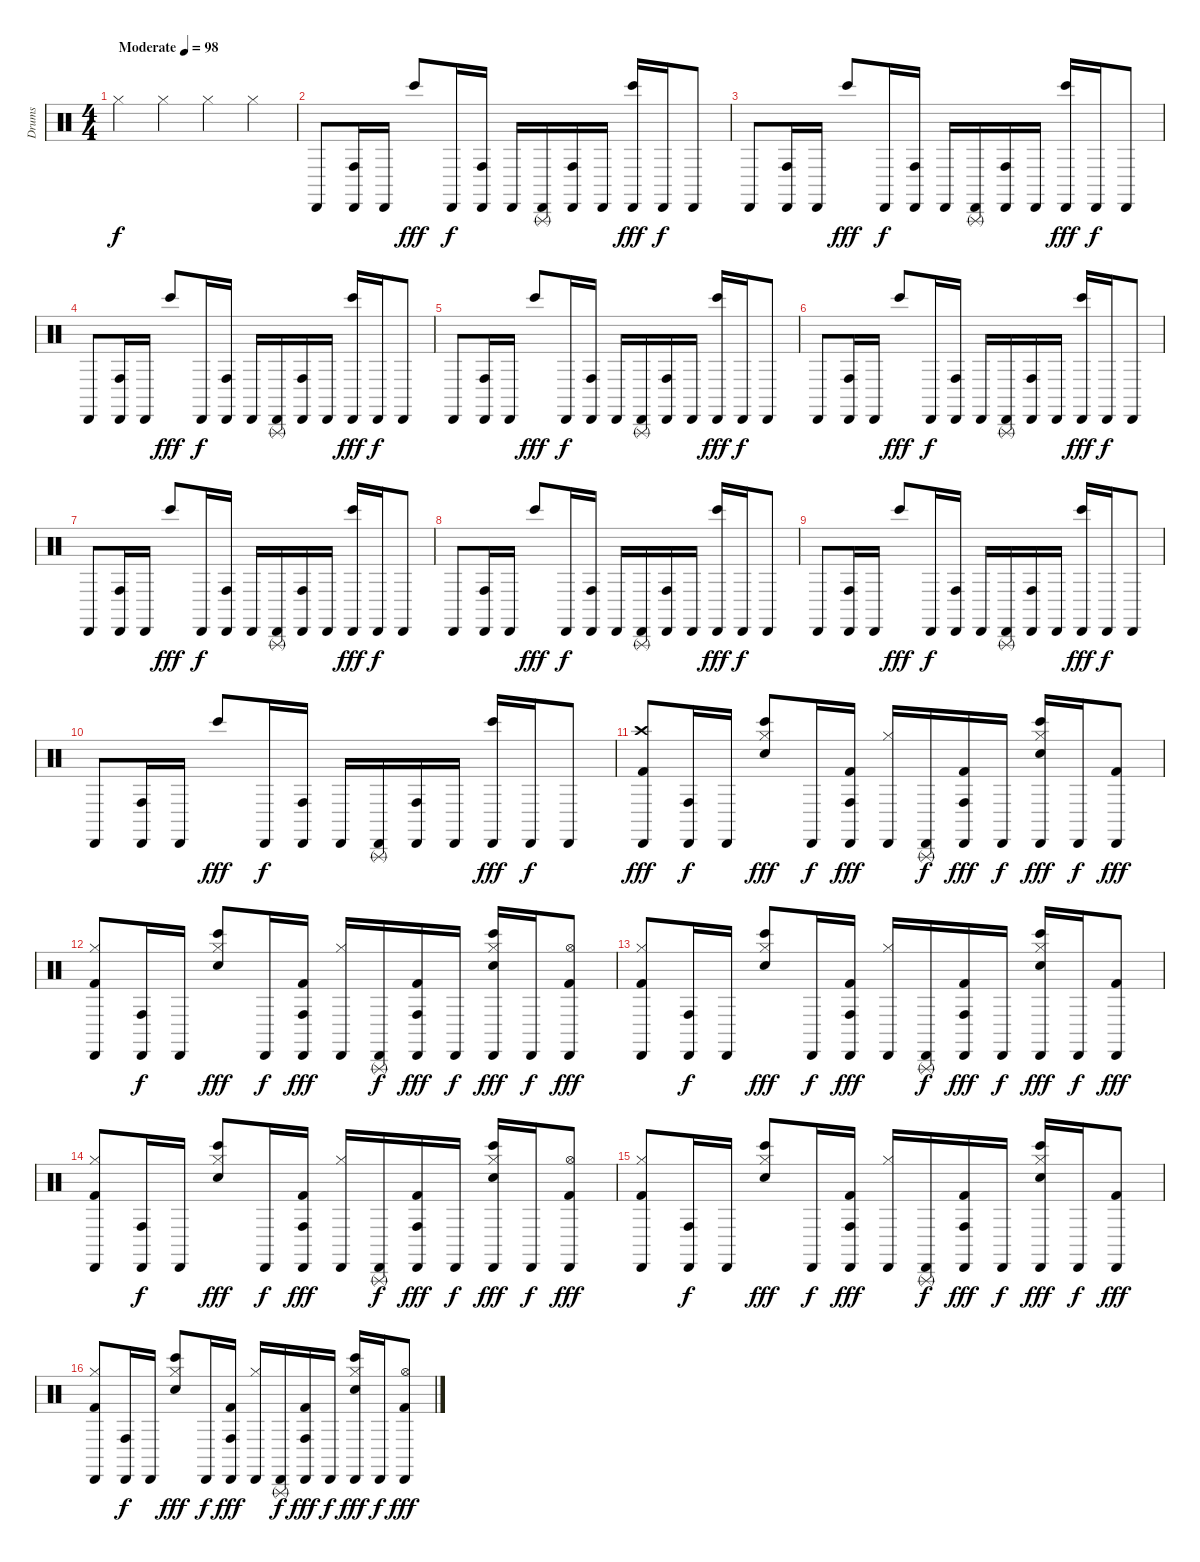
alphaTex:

\track ("Drums" "Drums") {instrument percussion}
\staff {score}
\articulation defaults
\ts (4 4)
\tempo (98 "Moderate")
\clef neutral
\ks c "Hi-Hat (closed)".4{dy f} "Hi-Hat (closed)".4 "Hi-Hat (closed)".4 "Hi-Hat (closed)".4
|
"Cabasa (hit)".8 ("Conga high (hit)" "Cabasa (hit)").16 "Cabasa (hit)".16 "Bongo High (hit)".8{dy fff} "Cabasa (hit)".16{dy f} ("Conga high (hit)" "Cabasa (hit)").16 "Cabasa (hit)".16 ("Triangle (rnute)" "Cabasa (hit)").16 ("Conga high (hit)" "Cabasa (hit)").16 "Cabasa (hit)".16 ("Bongo High (hit)" "Cabasa (hit)").16{dy fff} "Cabasa (hit)".16{dy f} "Cabasa (hit)".8 |
"Cabasa (hit)".8 ("Conga high (hit)" "Cabasa (hit)").16 "Cabasa (hit)".16 "Bongo High (hit)".8{dy fff} "Cabasa (hit)".16{dy f} ("Conga high (hit)" "Cabasa (hit)").16 "Cabasa (hit)".16 ("Triangle (rnute)" "Cabasa (hit)").16 ("Conga high (hit)" "Cabasa (hit)").16 "Cabasa (hit)".16 ("Bongo High (hit)" "Cabasa (hit)").16{dy fff} "Cabasa (hit)".16{dy f} "Cabasa (hit)".8 |
"Cabasa (hit)".8 ("Conga high (hit)" "Cabasa (hit)").16 "Cabasa (hit)".16 "Bongo High (hit)".8{dy fff} "Cabasa (hit)".16{dy f} ("Conga high (hit)" "Cabasa (hit)").16 "Cabasa (hit)".16 ("Triangle (rnute)" "Cabasa (hit)").16 ("Conga high (hit)" "Cabasa (hit)").16 "Cabasa (hit)".16 ("Bongo High (hit)" "Cabasa (hit)").16{dy fff} "Cabasa (hit)".16{dy f} "Cabasa (hit)".8 |
"Cabasa (hit)".8 ("Conga high (hit)" "Cabasa (hit)").16 "Cabasa (hit)".16 "Bongo High (hit)".8{dy fff} "Cabasa (hit)".16{dy f} ("Conga high (hit)" "Cabasa (hit)").16 "Cabasa (hit)".16 ("Triangle (rnute)" "Cabasa (hit)").16 ("Conga high (hit)" "Cabasa (hit)").16 "Cabasa (hit)".16 ("Bongo High (hit)" "Cabasa (hit)").16{dy fff} "Cabasa (hit)".16{dy f} "Cabasa (hit)".8 |
"Cabasa (hit)".8 ("Conga high (hit)" "Cabasa (hit)").16 "Cabasa (hit)".16 "Bongo High (hit)".8{dy fff} "Cabasa (hit)".16{dy f} ("Conga high (hit)" "Cabasa (hit)").16 "Cabasa (hit)".16 ("Triangle (rnute)" "Cabasa (hit)").16 ("Conga high (hit)" "Cabasa (hit)").16 "Cabasa (hit)".16 ("Bongo High (hit)" "Cabasa (hit)").16{dy fff} "Cabasa (hit)".16{dy f} "Cabasa (hit)".8 |
"Cabasa (hit)".8 ("Conga high (hit)" "Cabasa (hit)").16 "Cabasa (hit)".16 "Bongo High (hit)".8{dy fff} "Cabasa (hit)".16{dy f} ("Conga high (hit)" "Cabasa (hit)").16 "Cabasa (hit)".16 ("Triangle (rnute)" "Cabasa (hit)").16 ("Conga high (hit)" "Cabasa (hit)").16 "Cabasa (hit)".16 ("Bongo High (hit)" "Cabasa (hit)").16{dy fff} "Cabasa (hit)".16{dy f} "Cabasa (hit)".8 |
"Cabasa (hit)".8 ("Conga high (hit)" "Cabasa (hit)").16 "Cabasa (hit)".16 "Bongo High (hit)".8{dy fff} "Cabasa (hit)".16{dy f} ("Conga high (hit)" "Cabasa (hit)").16 "Cabasa (hit)".16 ("Triangle (rnute)" "Cabasa (hit)").16 ("Conga high (hit)" "Cabasa (hit)").16 "Cabasa (hit)".16 ("Bongo High (hit)" "Cabasa (hit)").16{dy fff} "Cabasa (hit)".16{dy f} "Cabasa (hit)".8 |
"Cabasa (hit)".8 ("Conga high (hit)" "Cabasa (hit)").16 "Cabasa (hit)".16 "Bongo High (hit)".8{dy fff} "Cabasa (hit)".16{dy f} ("Conga high (hit)" "Cabasa (hit)").16 "Cabasa (hit)".16 ("Triangle (rnute)" "Cabasa (hit)").16 ("Conga high (hit)" "Cabasa (hit)").16 "Cabasa (hit)".16 ("Bongo High (hit)" "Cabasa (hit)").16{dy fff} "Cabasa (hit)".16{dy f} "Cabasa (hit)".8 |
"Cabasa (hit)".8 ("Conga high (hit)" "Cabasa (hit)").16 "Cabasa (hit)".16 "Bongo High (hit)".8{dy fff} "Cabasa (hit)".16{dy f} ("Conga high (hit)" "Cabasa (hit)").16 "Cabasa (hit)".16 ("Triangle (rnute)" "Cabasa (hit)").16 ("Conga high (hit)" "Cabasa (hit)").16 "Cabasa (hit)".16 ("Bongo High (hit)" "Cabasa (hit)").16{dy fff} "Cabasa (hit)".16{dy f} "Cabasa (hit)".8 |
("Kick (hit) 2" "Crash high (hit)" "Cabasa (hit)").8{dy fff} ("Conga high (hit)" "Cabasa (hit)").16{dy f} "Cabasa (hit)".16 ("Bongo High (hit)" "Snare (hit) 2" "Hi-Hat (closed)").8{dy fff} "Cabasa (hit)".16{dy f} ("Conga high (hit)" "Kick (hit) 2" "Cabasa (hit)").16{dy fff} ("Hi-Hat (closed)" "Cabasa (hit)").16 ("Triangle (rnute)" "Cabasa (hit)").16{dy f} ("Conga high (hit)" "Kick (hit) 2" "Cabasa (hit)").16{dy fff} "Cabasa (hit)".16{dy f} ("Bongo High (hit)" "Snare (hit) 2" "Hi-Hat (closed)" "Cabasa (hit)").16{dy fff} "Cabasa (hit)".16{dy f} ("Kick (hit) 2" "Cabasa (hit)").8{dy fff} |
("Kick (hit) 2" "Hi-Hat (closed)" "Cabasa (hit)").8 ("Conga high (hit)" "Cabasa (hit)").16{dy f} "Cabasa (hit)".16 ("Bongo High (hit)" "Snare (hit) 2" "Hi-Hat (closed)").8{dy fff} "Cabasa (hit)".16{dy f} ("Conga high (hit)" "Kick (hit) 2" "Cabasa (hit)").16{dy fff} ("Hi-Hat (closed)" "Cabasa (hit)").16 ("Triangle (rnute)" "Cabasa (hit)").16{dy f} ("Conga high (hit)" "Kick (hit) 2" "Cabasa (hit)").16{dy fff} "Cabasa (hit)".16{dy f} ("Bongo High (hit)" "Snare (hit) 2" "Hi-Hat (closed)" "Cabasa (hit)").16{dy fff} "Cabasa (hit)".16{dy f} ("Kick (hit) 2" "Hi-Hat (open)" "Cabasa (hit)").8{dy fff} |
("Kick (hit) 2" "Cabasa (hit)" "Hi-Hat (closed)").8 ("Conga high (hit)" "Cabasa (hit)").16{dy f} "Cabasa (hit)".16 ("Bongo High (hit)" "Snare (hit) 2" "Hi-Hat (closed)").8{dy fff} "Cabasa (hit)".16{dy f} ("Conga high (hit)" "Kick (hit) 2" "Cabasa (hit)").16{dy fff} ("Hi-Hat (closed)" "Cabasa (hit)").16 ("Triangle (rnute)" "Cabasa (hit)").16{dy f} ("Conga high (hit)" "Kick (hit) 2" "Cabasa (hit)").16{dy fff} "Cabasa (hit)".16{dy f} ("Bongo High (hit)" "Snare (hit) 2" "Hi-Hat (closed)" "Cabasa (hit)").16{dy fff} "Cabasa (hit)".16{dy f} ("Kick (hit) 2" "Cabasa (hit)").8{dy fff} |
("Kick (hit) 2" "Hi-Hat (closed)" "Cabasa (hit)").8 ("Conga high (hit)" "Cabasa (hit)").16{dy f} "Cabasa (hit)".16 ("Bongo High (hit)" "Snare (hit) 2" "Hi-Hat (closed)").8{dy fff} "Cabasa (hit)".16{dy f} ("Conga high (hit)" "Kick (hit) 2" "Cabasa (hit)").16{dy fff} ("Hi-Hat (closed)" "Cabasa (hit)").16 ("Triangle (rnute)" "Cabasa (hit)").16{dy f} ("Conga high (hit)" "Kick (hit) 2" "Cabasa (hit)").16{dy fff} "Cabasa (hit)".16{dy f} ("Bongo High (hit)" "Snare (hit) 2" "Hi-Hat (closed)" "Cabasa (hit)").16{dy fff} "Cabasa (hit)".16{dy f} ("Kick (hit) 2" "Hi-Hat (open)" "Cabasa (hit)").8{dy fff} |
("Kick (hit) 2" "Cabasa (hit)" "Hi-Hat (closed)").8 ("Conga high (hit)" "Cabasa (hit)").16{dy f} "Cabasa (hit)".16 ("Bongo High (hit)" "Snare (hit) 2" "Hi-Hat (closed)").8{dy fff} "Cabasa (hit)".16{dy f} ("Conga high (hit)" "Kick (hit) 2" "Cabasa (hit)").16{dy fff} ("Hi-Hat (closed)" "Cabasa (hit)").16 ("Triangle (rnute)" "Cabasa (hit)").16{dy f} ("Conga high (hit)" "Kick (hit) 2" "Cabasa (hit)").16{dy fff} "Cabasa (hit)".16{dy f} ("Bongo High (hit)" "Snare (hit) 2" "Hi-Hat (closed)" "Cabasa (hit)").16{dy fff} "Cabasa (hit)".16{dy f} ("Kick (hit) 2" "Cabasa (hit)").8{dy fff} |
("Kick (hit) 2" "Hi-Hat (closed)" "Cabasa (hit)").8 ("Conga high (hit)" "Cabasa (hit)").16{dy f} "Cabasa (hit)".16 ("Bongo High (hit)" "Snare (hit) 2" "Hi-Hat (closed)").8{dy fff} "Cabasa (hit)".16{dy f} ("Conga high (hit)" "Kick (hit) 2" "Cabasa (hit)").16{dy fff} ("Hi-Hat (closed)" "Cabasa (hit)").16 ("Triangle (rnute)" "Cabasa (hit)").16{dy f} ("Conga high (hit)" "Kick (hit) 2" "Cabasa (hit)").16{dy fff} "Cabasa (hit)".16{dy f} ("Bongo High (hit)" "Snare (hit) 2" "Hi-Hat (closed)" "Cabasa (hit)").16{dy fff} "Cabasa (hit)".16{dy f} ("Kick (hit) 2" "Hi-Hat (open)" "Cabasa (hit)").8{dy fff}
